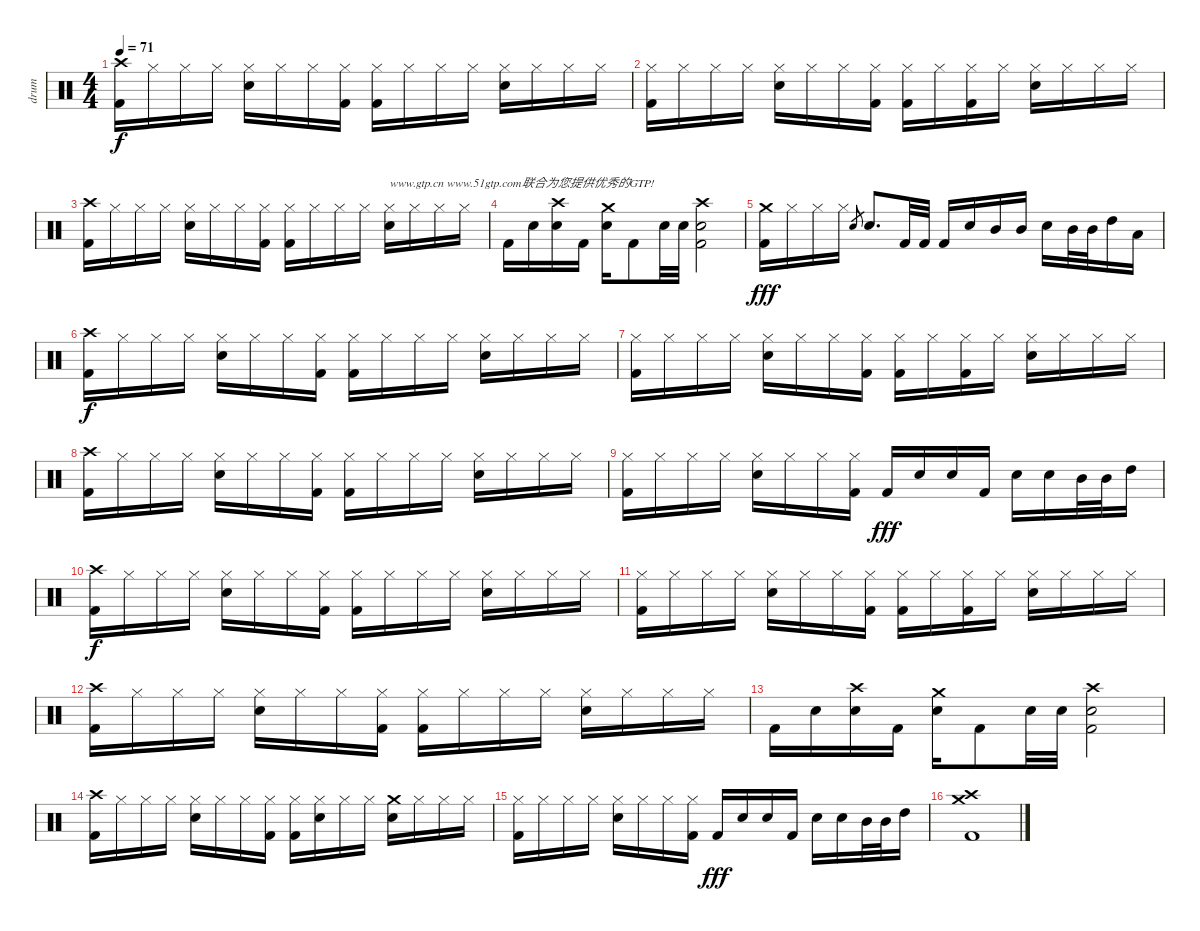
\track ("drum" "drum") {instrument percussion}
\staff {score}
\articulation defaults
\ts (4 4)
\tempo 71
\clef neutral
\ks c
("Crash high (hit)" "Kick (hit) 2").16{dy f} "Hi-Hat (closed)".16 "Hi-Hat (closed)".16 "Hi-Hat (closed)".16 ("Hi-Hat (closed)" "Snare (hit) 2").16 "Hi-Hat (closed)".16 "Hi-Hat (closed)".16 ("Hi-Hat (closed)" "Kick (hit) 2").16 ("Hi-Hat (closed)" "Kick (hit) 2").16 "Hi-Hat (closed)".16 "Hi-Hat (closed)".16 "Hi-Hat (closed)".16 ("Hi-Hat (closed)" "Snare (hit) 2").16 "Hi-Hat (closed)".16 "Hi-Hat (closed)".16 "Hi-Hat (closed)".16 |
("Hi-Hat (closed)" "Kick (hit) 2").16 "Hi-Hat (closed)".16 "Hi-Hat (closed)".16 "Hi-Hat (closed)".16 ("Hi-Hat (closed)" "Snare (hit) 2").16 "Hi-Hat (closed)".16 "Hi-Hat (closed)".16 ("Hi-Hat (closed)" "Kick (hit) 2").16 ("Hi-Hat (closed)" "Kick (hit) 2").16 "Hi-Hat (closed)".16 ("Hi-Hat (closed)" "Kick (hit) 2").16 "Hi-Hat (closed)".16 ("Hi-Hat (closed)" "Snare (hit) 2").16 "Hi-Hat (closed)".16 "Hi-Hat (closed)".16 "Hi-Hat (closed)".16 |
("Crash high (hit)" "Kick (hit) 2").16 "Hi-Hat (closed)".16 "Hi-Hat (closed)".16 "Hi-Hat (closed)".16 ("Hi-Hat (closed)" "Snare (hit) 2").16 "Hi-Hat (closed)".16 "Hi-Hat (closed)".16 ("Hi-Hat (closed)" "Kick (hit) 2").16 ("Hi-Hat (closed)" "Kick (hit) 2").16 "Hi-Hat (closed)".16 "Hi-Hat (closed)".16 "Hi-Hat (closed)".16 ("Hi-Hat (closed)" "Snare (hit) 2").16{txt "www.gtp.cn www.51gtp.com联合为您提供优秀的GTP!"} "Hi-Hat (closed)".16 "Hi-Hat (closed)".16 "Hi-Hat (closed)".16 |
"Kick (hit) 2".16 "Snare (hit) 2".16 ("Crash high (hit)" "Snare (hit) 2").16 "Kick (hit) 2".16 ("Crash medium (hit)" "Snare (hit) 2").16 "Kick (hit) 2".8 "Snare (hit) 2".32 "Snare (hit) 2".32 ("Crash high (hit)" "Snare (hit) 2" "Kick (hit) 2").2 |
("Crash medium (hit)" "Kick (hit) 2").16{dy fff} "Hi-Hat (closed)".16 "Hi-Hat (closed)".16 "Hi-Hat (closed)".16 "Snare (hit) 2".8{gr} "Snare (hit) 2".8{d} "Kick (hit) 2".32 "Kick (hit) 2".32 "Kick (hit) 2".16 "Snare (hit) 2".16 "Mid Tom (hit)".16 "Mid Tom (hit)".16 "Snare (hit) 2".16 "Mid Tom (hit)".32 "Mid Tom (hit)".32 "High Tom (hit)".16 "Low Tom (hit)".16 |
("Crash high (hit)" "Kick (hit) 2").16{dy f} "Hi-Hat (closed)".16 "Hi-Hat (closed)".16 "Hi-Hat (closed)".16 ("Hi-Hat (closed)" "Snare (hit) 2").16 "Hi-Hat (closed)".16 "Hi-Hat (closed)".16 ("Hi-Hat (closed)" "Kick (hit) 2").16 ("Hi-Hat (closed)" "Kick (hit) 2").16 "Hi-Hat (closed)".16 "Hi-Hat (closed)".16 "Hi-Hat (closed)".16 ("Hi-Hat (closed)" "Snare (hit) 2").16 "Hi-Hat (closed)".16 "Hi-Hat (closed)".16 "Hi-Hat (closed)".16 |
("Hi-Hat (closed)" "Kick (hit) 2").16 "Hi-Hat (closed)".16 "Hi-Hat (closed)".16 "Hi-Hat (closed)".16 ("Hi-Hat (closed)" "Snare (hit) 2").16 "Hi-Hat (closed)".16 "Hi-Hat (closed)".16 ("Hi-Hat (closed)" "Kick (hit) 2").16 ("Hi-Hat (closed)" "Kick (hit) 2").16 "Hi-Hat (closed)".16 ("Hi-Hat (closed)" "Kick (hit) 2").16 "Hi-Hat (closed)".16 ("Hi-Hat (closed)" "Snare (hit) 2").16 "Hi-Hat (closed)".16 "Hi-Hat (closed)".16 "Hi-Hat (closed)".16 |
("Crash high (hit)" "Kick (hit) 2").16 "Hi-Hat (closed)".16 "Hi-Hat (closed)".16 "Hi-Hat (closed)".16 ("Hi-Hat (closed)" "Snare (hit) 2").16 "Hi-Hat (closed)".16 "Hi-Hat (closed)".16 ("Hi-Hat (closed)" "Kick (hit) 2").16 ("Hi-Hat (closed)" "Kick (hit) 2").16 "Hi-Hat (closed)".16 "Hi-Hat (closed)".16 "Hi-Hat (closed)".16 ("Hi-Hat (closed)" "Snare (hit) 2").16 "Hi-Hat (closed)".16 "Hi-Hat (closed)".16 "Hi-Hat (closed)".16 |
("Hi-Hat (closed)" "Kick (hit) 2").16 "Hi-Hat (closed)".16 "Hi-Hat (closed)".16 "Hi-Hat (closed)".16 ("Hi-Hat (closed)" "Snare (hit) 2").16 "Hi-Hat (closed)".16 "Hi-Hat (closed)".16 ("Hi-Hat (closed)" "Kick (hit) 2").16 "Kick (hit) 2".16{dy fff} "Snare (hit) 2".16 "Snare (hit) 2".16 "Kick (hit) 2".16 "Snare (hit) 2".16 "Snare (hit) 2".16 "Mid Tom (hit)".32 "Mid Tom (hit)".32 "High Tom (hit)".16 |
("Crash high (hit)" "Kick (hit) 2").16{dy f} "Hi-Hat (closed)".16 "Hi-Hat (closed)".16 "Hi-Hat (closed)".16 ("Hi-Hat (closed)" "Snare (hit) 2").16 "Hi-Hat (closed)".16 "Hi-Hat (closed)".16 ("Hi-Hat (closed)" "Kick (hit) 2").16 ("Hi-Hat (closed)" "Kick (hit) 2").16 "Hi-Hat (closed)".16 "Hi-Hat (closed)".16 "Hi-Hat (closed)".16 ("Hi-Hat (closed)" "Snare (hit) 2").16 "Hi-Hat (closed)".16 "Hi-Hat (closed)".16 "Hi-Hat (closed)".16 |
("Hi-Hat (closed)" "Kick (hit) 2").16 "Hi-Hat (closed)".16 "Hi-Hat (closed)".16 "Hi-Hat (closed)".16 ("Hi-Hat (closed)" "Snare (hit) 2").16 "Hi-Hat (closed)".16 "Hi-Hat (closed)".16 ("Hi-Hat (closed)" "Kick (hit) 2").16 ("Hi-Hat (closed)" "Kick (hit) 2").16 "Hi-Hat (closed)".16 ("Hi-Hat (closed)" "Kick (hit) 2").16 "Hi-Hat (closed)".16 ("Hi-Hat (closed)" "Snare (hit) 2").16 "Hi-Hat (closed)".16 "Hi-Hat (closed)".16 "Hi-Hat (closed)".16 |
("Crash high (hit)" "Kick (hit) 2").16 "Hi-Hat (closed)".16 "Hi-Hat (closed)".16 "Hi-Hat (closed)".16 ("Hi-Hat (closed)" "Snare (hit) 2").16 "Hi-Hat (closed)".16 "Hi-Hat (closed)".16 ("Hi-Hat (closed)" "Kick (hit) 2").16 ("Hi-Hat (closed)" "Kick (hit) 2").16 "Hi-Hat (closed)".16 "Hi-Hat (closed)".16 "Hi-Hat (closed)".16 ("Hi-Hat (closed)" "Snare (hit) 2").16 "Hi-Hat (closed)".16 "Hi-Hat (closed)".16 "Hi-Hat (closed)".16 |
"Kick (hit) 2".16 "Snare (hit) 2".16 ("Crash high (hit)" "Snare (hit) 2").16 "Kick (hit) 2".16 ("Crash medium (hit)" "Snare (hit) 2").16 "Kick (hit) 2".8 "Snare (hit) 2".32 "Snare (hit) 2".32 ("Crash high (hit)" "Snare (hit) 2" "Kick (hit) 2").2 |
("Crash high (hit)" "Kick (hit) 2").16 "Hi-Hat (closed)".16 "Hi-Hat (closed)".16 "Hi-Hat (closed)".16 ("Hi-Hat (closed)" "Snare (hit) 2").16 "Hi-Hat (closed)".16 "Hi-Hat (closed)".16 ("Hi-Hat (closed)" "Kick (hit) 2").16 ("Hi-Hat (closed)" "Kick (hit) 2").16 ("Hi-Hat (closed)" "Snare (hit) 2").16 "Hi-Hat (closed)".16 "Hi-Hat (closed)".16 ("Crash medium (hit)" "Snare (hit) 2").16 "Hi-Hat (closed)".16 "Hi-Hat (closed)".16 "Hi-Hat (closed)".16 |
("Hi-Hat (closed)" "Kick (hit) 2").16 "Hi-Hat (closed)".16 "Hi-Hat (closed)".16 "Hi-Hat (closed)".16 ("Hi-Hat (closed)" "Snare (hit) 2").16 "Hi-Hat (closed)".16 "Hi-Hat (closed)".16 ("Hi-Hat (closed)" "Kick (hit) 2").16 "Kick (hit) 2".16{dy fff} "Snare (hit) 2".16 "Snare (hit) 2".16 "Kick (hit) 2".16 "Snare (hit) 2".16 "Snare (hit) 2".16 "Mid Tom (hit)".32 "Mid Tom (hit)".32 "High Tom (hit)".16 |
("Crash high (hit)" "Crash medium (hit)" "Kick (hit) 2").1
